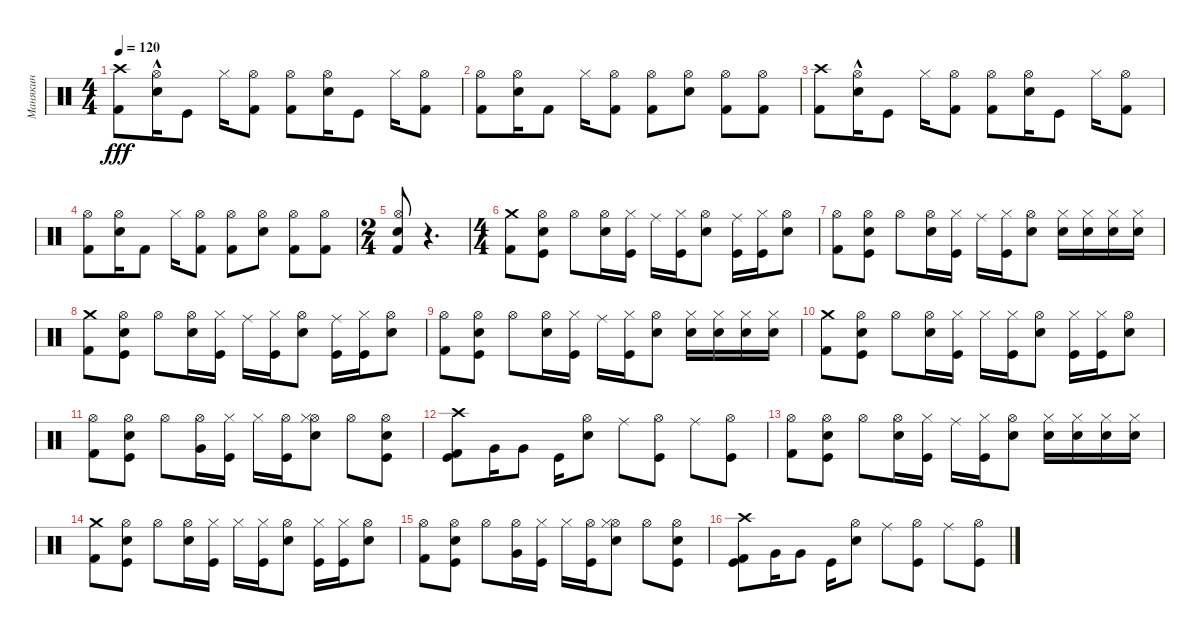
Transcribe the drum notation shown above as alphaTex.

\track ("Манякин" "Манякин") {instrument percussion}
\staff {score}
\articulation defaults
\ts (4 4)
\tempo 120
\clef neutral
\ks c
("Crash high (hit)" "Kick (hit) 2").8{dy fff} ("Hi-Hat (open)"{hac} "Snare (hit) 2").16 "Kick (hit)".8 "Hi-Hat (closed)".16 ("Hi-Hat (open)" "Kick (hit) 2").8 ("Hi-Hat (open)" "Kick (hit) 2").8 ("Hi-Hat (open)" "Snare (hit) 2").16 "Kick (hit)".8 "Hi-Hat (closed)".16 ("Kick (hit) 2" "Hi-Hat (open)").8 |
("Hi-Hat (open)" "Kick (hit) 2").8 ("Hi-Hat (open)" "Snare (hit) 2").16 "Kick (hit) 2".8 "Hi-Hat (closed)".16 ("Hi-Hat (open)" "Kick (hit) 2").8 ("Kick (hit) 2" "Hi-Hat (open)").8 ("Hi-Hat (open)" "Snare (hit) 2").8 ("Hi-Hat (open)" "Kick (hit) 2").8 ("Hi-Hat (open)" "Kick (hit) 2").8 |
("Crash high (hit)" "Kick (hit) 2").8 ("Hi-Hat (open)"{hac} "Snare (hit) 2").16 "Kick (hit)".8 "Hi-Hat (closed)".16 ("Hi-Hat (open)" "Kick (hit) 2").8 ("Hi-Hat (open)" "Kick (hit) 2").8 ("Hi-Hat (open)" "Snare (hit) 2").16 "Kick (hit)".8 "Hi-Hat (closed)".16 ("Kick (hit) 2" "Hi-Hat (open)").8 |
("Hi-Hat (open)" "Kick (hit) 2").8 ("Hi-Hat (open)" "Snare (hit) 2").16 "Kick (hit) 2".8 "Hi-Hat (closed)".16 ("Hi-Hat (open)" "Kick (hit) 2").8 ("Kick (hit) 2" "Hi-Hat (open)").8 ("Hi-Hat (open)" "Snare (hit) 2").8 ("Hi-Hat (open)" "Kick (hit) 2").8 ("Hi-Hat (open)" "Kick (hit) 2").8 |
\ts (2 4)
("Hi-Hat (open)" "Snare (hit) 2" "Kick (hit) 2").8 r.4{d} |
\ts (4 4)
("Crash medium (hit)" "Kick (hit) 2").8 ("Hi-Hat (open)" "Kick (hit)" "Snare (hit) 2").8 "Hi-Hat (open)".8 ("Snare (hit) 2" "Hi-Hat (open)").16 ("Kick (hit)" "Hi-Hat (closed)").16 "Ride (middle)".16 ("Kick (hit)" "Hi-Hat (closed)").16 ("Snare (hit) 2" "Hi-Hat (open)").8 ("Kick (hit)" "Ride (middle)").16 ("Kick (hit)" "Hi-Hat (closed)").16 ("Snare (hit) 2" "Hi-Hat (open)").8 |
("Hi-Hat (open)" "Kick (hit) 2").8 ("Hi-Hat (open)" "Snare (hit) 2" "Kick (hit)").8 "Hi-Hat (open)".8 ("Snare (hit) 2" "Hi-Hat (open)").16 ("Hi-Hat (closed)" "Kick (hit)").16 "Ride (middle)".16 ("Hi-Hat (closed)" "Kick (hit)").16 ("Hi-Hat (open)" "Snare (hit) 2").8 ("Hi-Hat (closed)" "Snare (hit) 2").16 ("Hi-Hat (closed)" "Snare (hit) 2").16 ("Hi-Hat (closed)" "Snare (hit) 2").16 ("Hi-Hat (closed)" "Snare (hit) 2").16 |
("Crash medium (hit)" "Kick (hit) 2").8 ("Hi-Hat (open)" "Kick (hit)" "Snare (hit) 2").8 "Hi-Hat (open)".8 ("Snare (hit) 2" "Hi-Hat (open)").16 ("Kick (hit)" "Hi-Hat (closed)").16 "Ride (middle)".16 ("Kick (hit)" "Hi-Hat (closed)").16 ("Snare (hit) 2" "Hi-Hat (open)").8 ("Kick (hit)" "Ride (middle)").16 ("Kick (hit)" "Hi-Hat (closed)").16 ("Snare (hit) 2" "Hi-Hat (open)").8 |
("Hi-Hat (open)" "Kick (hit) 2").8 ("Hi-Hat (open)" "Snare (hit) 2" "Kick (hit)").8 "Hi-Hat (open)".8 ("Snare (hit) 2" "Hi-Hat (open)").16 ("Hi-Hat (closed)" "Kick (hit)").16 "Ride (middle)".16 ("Hi-Hat (closed)" "Kick (hit)").16 ("Hi-Hat (open)" "Snare (hit) 2").8 ("Hi-Hat (closed)" "Snare (hit) 2").16 ("Hi-Hat (closed)" "Snare (hit) 2").16 ("Hi-Hat (closed)" "Snare (hit) 2").16 ("Hi-Hat (closed)" "Snare (hit) 2").16 |
("Crash medium (hit)" "Kick (hit) 2").8 ("Hi-Hat (open)" "Snare (hit) 2" "Kick (hit)").8 "Hi-Hat (open)".8 ("Snare (hit) 2" "Hi-Hat (open)").16 ("Hi-Hat (closed)" "Kick (hit)").16 "Hi-Hat (closed)".16 ("Hi-Hat (closed)" "Kick (hit)").16 ("Hi-Hat (open)" "Snare (hit) 2").8 ("Hi-Hat (closed)" "Kick (hit)").16 ("Hi-Hat (closed)" "Kick (hit)").16 ("Hi-Hat (open)" "Snare (hit) 2").8 |
("Hi-Hat (open)" "Kick (hit) 2").8 ("Hi-Hat (open)" "Snare (hit) 2" "Kick (hit)").8 "Hi-Hat (open)".8 ("Hi-Hat (open)" "Very Low Tom (hit)").16 ("Hi-Hat (closed)" "Kick (hit)").16 "Hi-Hat (closed)".16 ("Hi-Hat (open)" "Kick (hit)").16 ("Hi-Hat (open)" "Hi-Hat (closed)" "Snare (hit) 2").8 "Hi-Hat (open)".8 ("Hi-Hat (open)" "Snare (hit) 2" "Kick (hit)").8 |
("Crash high (hit)" "Kick (hit)" "Kick (hit) 2").8 "Very Low Tom (hit)".16 "Very Low Tom (hit)".8 "Kick (hit)".16 ("Hi-Hat (open)" "Snare (hit) 2").8 "Ride (middle)".8 ("Kick (hit)" "Hi-Hat (open)").8 "Ride (middle)".8 ("Kick (hit)" "Hi-Hat (open)").8 |
("Hi-Hat (open)" "Kick (hit) 2").8 ("Hi-Hat (open)" "Snare (hit) 2" "Kick (hit)").8 "Hi-Hat (open)".8 ("Snare (hit) 2" "Hi-Hat (open)").16 ("Hi-Hat (closed)" "Kick (hit)").16 "Ride (middle)".16 ("Hi-Hat (closed)" "Kick (hit)").16 ("Hi-Hat (open)" "Snare (hit) 2").8 ("Hi-Hat (closed)" "Snare (hit) 2").16 ("Hi-Hat (closed)" "Snare (hit) 2").16 ("Hi-Hat (closed)" "Snare (hit) 2").16 ("Hi-Hat (closed)" "Snare (hit) 2").16 |
("Crash medium (hit)" "Kick (hit) 2").8 ("Hi-Hat (open)" "Snare (hit) 2" "Kick (hit)").8 "Hi-Hat (open)".8 ("Snare (hit) 2" "Hi-Hat (open)").16 ("Hi-Hat (closed)" "Kick (hit)").16 "Hi-Hat (closed)".16 ("Hi-Hat (closed)" "Kick (hit)").16 ("Hi-Hat (open)" "Snare (hit) 2").8 ("Hi-Hat (closed)" "Kick (hit)").16 ("Hi-Hat (closed)" "Kick (hit)").16 ("Hi-Hat (open)" "Snare (hit) 2").8 |
("Hi-Hat (open)" "Kick (hit) 2").8 ("Hi-Hat (open)" "Snare (hit) 2" "Kick (hit)").8 "Hi-Hat (open)".8 ("Hi-Hat (open)" "Very Low Tom (hit)").16 ("Hi-Hat (closed)" "Kick (hit)").16 "Hi-Hat (closed)".16 ("Hi-Hat (open)" "Kick (hit)").16 ("Hi-Hat (open)" "Hi-Hat (closed)" "Snare (hit) 2").8 "Hi-Hat (open)".8 ("Hi-Hat (open)" "Snare (hit) 2" "Kick (hit)").8 |
("Crash high (hit)" "Kick (hit)" "Kick (hit) 2").8 "Very Low Tom (hit)".16 "Very Low Tom (hit)".8 "Kick (hit)".16 ("Hi-Hat (open)" "Snare (hit) 2").8 "Ride (middle)".8 ("Kick (hit)" "Hi-Hat (open)").8 "Ride (middle)".8 ("Kick (hit)" "Hi-Hat (open)").8
